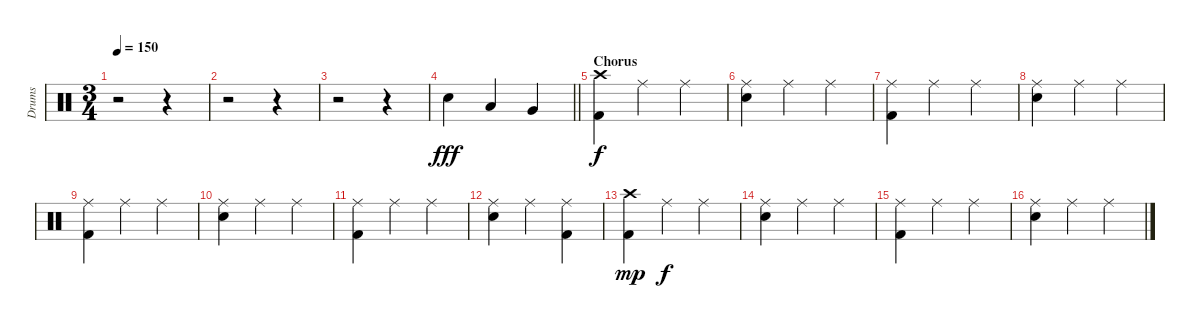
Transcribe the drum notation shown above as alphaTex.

\track ("Drums" "Drums") {instrument percussion}
\staff {score}
\articulation defaults
\ts (3 4)
\tempo 150
\clef neutral
\ks c
r.2{dy f} r.4 |
r.2 r.4 |
r.2 r.4 |
\barLineRight lightlight "Electric Snare (hit)".4{dy fff} "Low Tom (hit)".4 "Very Low Tom (hit)".4
|
\section ("" "Chorus")
("Crash high (hit)" "Kick (hit) 2").4{dy f} "Ride (middle)".4 "Ride (middle)".4 |
("Ride (middle)" "Electric Snare (hit)").4 "Ride (middle)".4 "Ride (middle)".4 |
("Ride (middle)" "Kick (hit) 2").4 "Ride (middle)".4 "Ride (middle)".4 |
("Ride (middle)" "Electric Snare (hit)").4 "Ride (middle)".4 "Ride (middle)".4 |
("Ride (middle)" "Kick (hit) 2").4 "Ride (middle)".4 "Ride (middle)".4 |
("Ride (middle)" "Electric Snare (hit)").4 "Ride (middle)".4 "Ride (middle)".4 |
("Ride (middle)" "Kick (hit) 2").4 "Ride (middle)".4 "Ride (middle)".4 |
("Ride (middle)" "Electric Snare (hit)").4 "Ride (middle)".4 ("Ride (middle)" "Kick (hit) 2").4 |
("Crash high (hit)" "Kick (hit) 2").4{dy mp} "Ride (middle)".4{dy f} "Ride (middle)".4 |
("Ride (middle)" "Electric Snare (hit)").4 "Ride (middle)".4 "Ride (middle)".4 |
("Ride (middle)" "Kick (hit) 2").4 "Ride (middle)".4 "Ride (middle)".4 |
("Ride (middle)" "Electric Snare (hit)").4 "Ride (middle)".4 "Ride (middle)".4
